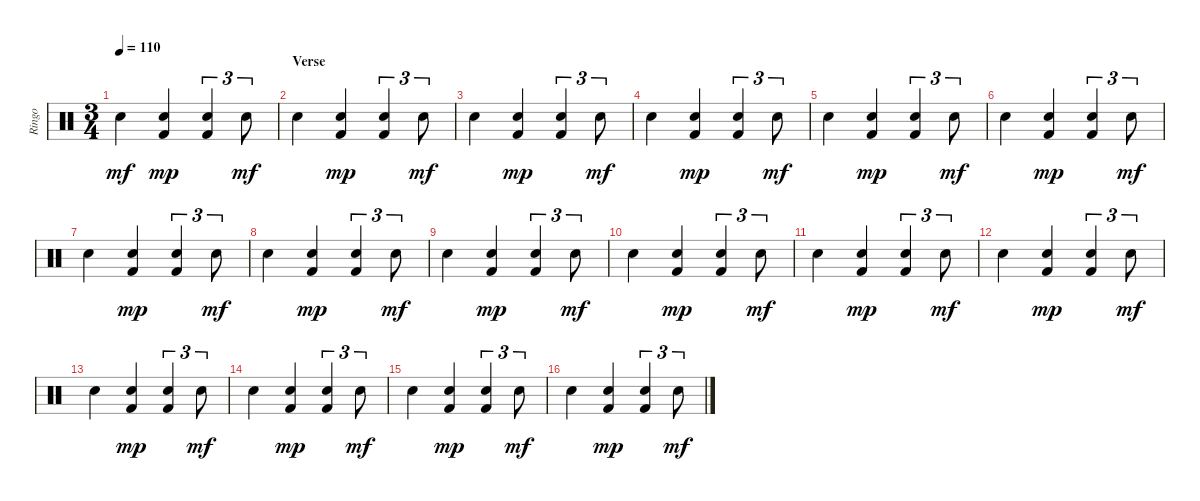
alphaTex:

\track ("Ringo" "Ringo") {instrument percussion}
\staff {score}
\articulation defaults
\ts (3 4)
\tempo 110
\clef neutral
\ks c "Snare (hit) 2".4{dy mf}
("Snare (hit) 2" "Kick (hit) 2").4{dy mp} ("Snare (hit) 2" "Kick (hit) 2").4{tu (3 2)} "Snare (hit) 2".8{tu (3 2) dy mf} |
\section ("" "Verse")
"Snare (hit) 2".4 ("Snare (hit) 2" "Kick (hit) 2").4{dy mp} ("Snare (hit) 2" "Kick (hit) 2").4{tu (3 2)} "Snare (hit) 2".8{tu (3 2) dy mf} |
"Snare (hit) 2".4 ("Snare (hit) 2" "Kick (hit) 2").4{dy mp} ("Snare (hit) 2" "Kick (hit) 2").4{tu (3 2)} "Snare (hit) 2".8{tu (3 2) dy mf} |
"Snare (hit) 2".4 ("Snare (hit) 2" "Kick (hit) 2").4{dy mp} ("Snare (hit) 2" "Kick (hit) 2").4{tu (3 2)} "Snare (hit) 2".8{tu (3 2) dy mf} |
"Snare (hit) 2".4 ("Snare (hit) 2" "Kick (hit) 2").4{dy mp} ("Snare (hit) 2" "Kick (hit) 2").4{tu (3 2)} "Snare (hit) 2".8{tu (3 2) dy mf} |
"Snare (hit) 2".4 ("Snare (hit) 2" "Kick (hit) 2").4{dy mp} ("Snare (hit) 2" "Kick (hit) 2").4{tu (3 2)} "Snare (hit) 2".8{tu (3 2) dy mf} |
"Snare (hit) 2".4 ("Snare (hit) 2" "Kick (hit) 2").4{dy mp} ("Snare (hit) 2" "Kick (hit) 2").4{tu (3 2)} "Snare (hit) 2".8{tu (3 2) dy mf} |
"Snare (hit) 2".4 ("Snare (hit) 2" "Kick (hit) 2").4{dy mp} ("Snare (hit) 2" "Kick (hit) 2").4{tu (3 2)} "Snare (hit) 2".8{tu (3 2) dy mf} |
"Snare (hit) 2".4 ("Snare (hit) 2" "Kick (hit) 2").4{dy mp} ("Snare (hit) 2" "Kick (hit) 2").4{tu (3 2)} "Snare (hit) 2".8{tu (3 2) dy mf} |
"Snare (hit) 2".4 ("Snare (hit) 2" "Kick (hit) 2").4{dy mp} ("Snare (hit) 2" "Kick (hit) 2").4{tu (3 2)} "Snare (hit) 2".8{tu (3 2) dy mf} |
"Snare (hit) 2".4 ("Snare (hit) 2" "Kick (hit) 2").4{dy mp} ("Snare (hit) 2" "Kick (hit) 2").4{tu (3 2)} "Snare (hit) 2".8{tu (3 2) dy mf} |
"Snare (hit) 2".4 ("Snare (hit) 2" "Kick (hit) 2").4{dy mp} ("Snare (hit) 2" "Kick (hit) 2").4{tu (3 2)} "Snare (hit) 2".8{tu (3 2) dy mf} |
"Snare (hit) 2".4 ("Snare (hit) 2" "Kick (hit) 2").4{dy mp} ("Snare (hit) 2" "Kick (hit) 2").4{tu (3 2)} "Snare (hit) 2".8{tu (3 2) dy mf} |
"Snare (hit) 2".4 ("Snare (hit) 2" "Kick (hit) 2").4{dy mp} ("Snare (hit) 2" "Kick (hit) 2").4{tu (3 2)} "Snare (hit) 2".8{tu (3 2) dy mf} |
"Snare (hit) 2".4 ("Snare (hit) 2" "Kick (hit) 2").4{dy mp} ("Snare (hit) 2" "Kick (hit) 2").4{tu (3 2)} "Snare (hit) 2".8{tu (3 2) dy mf} |
"Snare (hit) 2".4 ("Snare (hit) 2" "Kick (hit) 2").4{dy mp} ("Snare (hit) 2" "Kick (hit) 2").4{tu (3 2)} "Snare (hit) 2".8{tu (3 2) dy mf}
